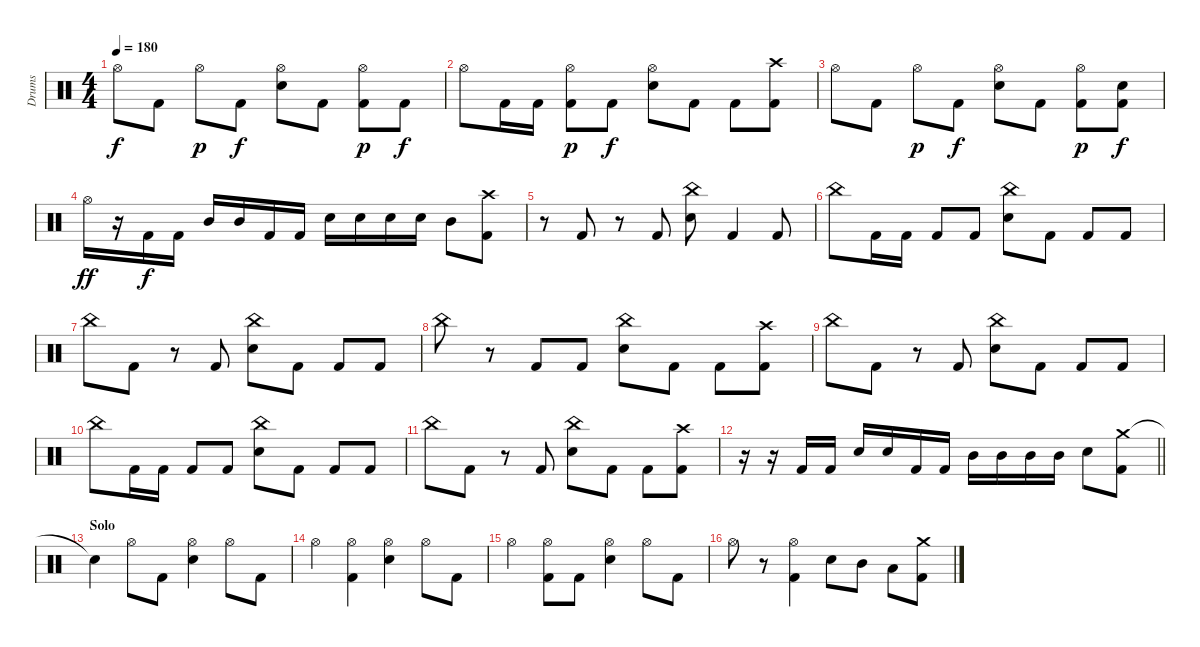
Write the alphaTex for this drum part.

\track ("Drums" "Drums") {instrument percussion}
\staff {score}
\articulation defaults
\ts (4 4)
\tempo 180
\clef neutral
\ks c "Hi-Hat (open)".8{dy f} "Kick (hit) 2".8 "Hi-Hat (open)".8{dy p} "Kick (hit) 2".8{dy f}
("Hi-Hat (open)" "Electric Snare (hit)").8 "Kick (hit) 2".8 ("Hi-Hat (open)" "Kick (hit) 2").8{dy p} "Kick (hit) 2".8{dy f} |
"Hi-Hat (open)".8 "Kick (hit) 2".16 "Kick (hit) 2".16 ("Hi-Hat (open)" "Kick (hit) 2").8{dy p} "Kick (hit) 2".8{dy f} ("Hi-Hat (open)" "Electric Snare (hit)").8 "Kick (hit) 2".8 "Kick (hit) 2".8 ("Crash high (hit)" "Kick (hit) 2").8 |
"Hi-Hat (open)".8 "Kick (hit) 2".8 "Hi-Hat (open)".8{dy p} "Kick (hit) 2".8{dy f} ("Hi-Hat (open)" "Electric Snare (hit)").8 "Kick (hit) 2".8 ("Hi-Hat (open)" "Kick (hit) 2").8{dy p} ("Electric Snare (hit)" "Kick (hit) 2").8{dy f} |
"Hi-Hat (open)".16{dy ff} r.16 "Kick (hit) 2".16{dy f} "Kick (hit) 2".16 "Mid Tom (hit)".16 "Mid Tom (hit)".16 "Kick (hit) 2".16 "Kick (hit) 2".16 "Electric Snare (hit)".16 "Electric Snare (hit)".16 "Electric Snare (hit)".16 "Electric Snare (hit)".16 "Mid Tom (hit)".8 ("Crash high (hit)" "Kick (hit) 2").8 |
r.8 "Kick (hit) 2".8 r.8 "Kick (hit) 2".8 ("China (hit)" "Electric Snare (hit)").8 "Kick (hit) 2".4 "Kick (hit) 2".8 |
"China (hit)".8 "Kick (hit) 2".16 "Kick (hit) 2".16 "Kick (hit) 2".8 "Kick (hit) 2".8 ("China (hit)" "Electric Snare (hit)").8 "Kick (hit) 2".8 "Kick (hit) 2".8 "Kick (hit) 2".8 |
"China (hit)".8 "Kick (hit) 2".8 r.8 "Kick (hit) 2".8 ("China (hit)" "Electric Snare (hit)").8 "Kick (hit) 2".8 "Kick (hit) 2".8 "Kick (hit) 2".8 |
"China (hit)".8 r.8 "Kick (hit) 2".8 "Kick (hit) 2".8 ("China (hit)" "Electric Snare (hit)").8 "Kick (hit) 2".8 "Kick (hit) 2".8 ("Crash high (hit)" "Kick (hit) 2").8 |
"China (hit)".8 "Kick (hit) 2".8 r.8 "Kick (hit) 2".8 ("China (hit)" "Electric Snare (hit)").8 "Kick (hit) 2".8 "Kick (hit) 2".8 "Kick (hit) 2".8 |
"China (hit)".8 "Kick (hit) 2".16 "Kick (hit) 2".16 "Kick (hit) 2".8 "Kick (hit) 2".8 ("China (hit)" "Electric Snare (hit)").8 "Kick (hit) 2".8 "Kick (hit) 2".8 "Kick (hit) 2".8 |
"China (hit)".8 "Kick (hit) 2".8 r.8 "Kick (hit) 2".8 ("China (hit)" "Electric Snare (hit)").8 "Kick (hit) 2".8 "Kick (hit) 2".8 ("Crash high (hit)" "Kick (hit) 2").8 |
\barLineRight lightlight
r.16 r.16 "Kick (hit) 2".16 "Kick (hit) 2".16 "Electric Snare (hit)".16 "Electric Snare (hit)".16 "Kick (hit) 2".16 "Kick (hit) 2".16 "Mid Tom (hit)".16 "Mid Tom (hit)".16 "Mid Tom (hit)".16 "Mid Tom (hit)".16 "Electric Snare (hit)".8 ("Crash medium (hit)" "Kick (hit) 2").8 |
\section ("" "Solo")
"Snare (hit)"{t}.4 "Hi-Hat (open)".8 "Kick (hit) 2".8 ("Hi-Hat (open)" "Electric Snare (hit)").4 "Hi-Hat (open)".8 "Kick (hit) 2".8 |
"Hi-Hat (open)".4 ("Hi-Hat (open)" "Kick (hit) 2").4 ("Hi-Hat (open)" "Electric Snare (hit)").4 "Hi-Hat (open)".8 "Kick (hit) 2".8 |
"Hi-Hat (open)".4 ("Hi-Hat (open)" "Kick (hit) 2").8 "Kick (hit) 2".8 ("Hi-Hat (open)" "Electric Snare (hit)").4 "Hi-Hat (open)".8 "Kick (hit) 2".8 |
"Hi-Hat (open)".8 r.8 ("Hi-Hat (open)" "Kick (hit) 2").4 "Electric Snare (hit)".8 "Mid Tom (hit)".8 "Low Tom (hit)".8 ("Crash medium (hit)" "Kick (hit) 2").8
